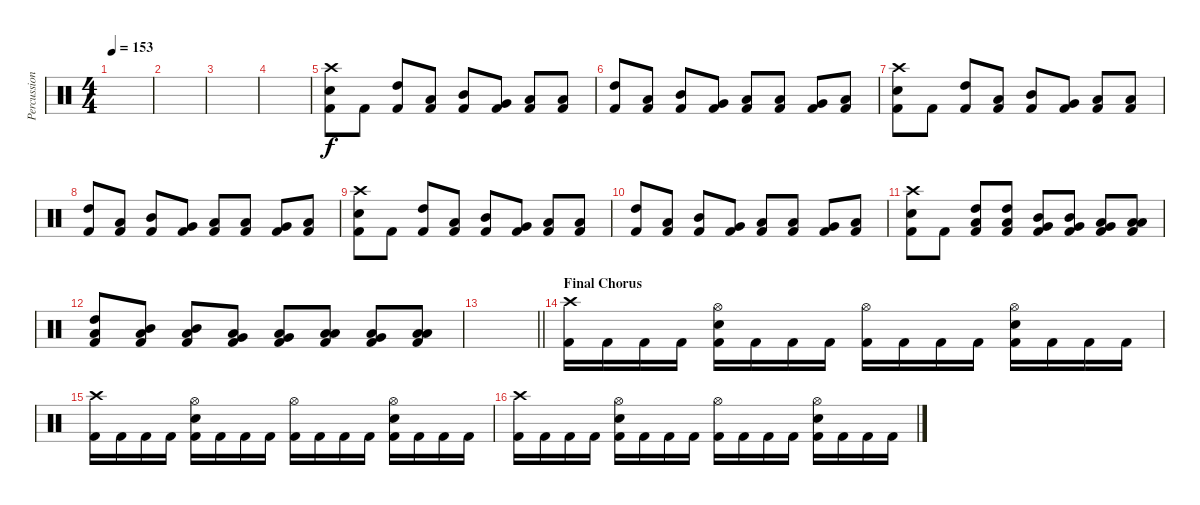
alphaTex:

\track ("Percussion" "Percussion") {instrument percussion}
\staff {score}
\articulation defaults
\ts (4 4)
\tempo 153
\clef neutral
\ks c
|
|
|
|
("Crash high (hit)" "Snare (hit) 2" "Kick (hit) 2").8 "Kick (hit) 2".8 ("High Tom (hit)" "Kick (hit) 2").8 ("Low Tom (hit)" "Kick (hit) 2").8 ("Mid Tom (hit)" "Kick (hit) 2").8 ("Very Low Tom (hit)" "Kick (hit) 2").8 ("Low Tom (hit)" "Kick (hit) 2").8 ("Low Floor Tom (hit)" "Kick (hit) 2").8 |
("High Tom (hit)" "Kick (hit) 2").8 ("Low Tom (hit)" "Kick (hit) 2").8 ("Mid Tom (hit)" "Kick (hit) 2").8 ("Very Low Tom (hit)" "Kick (hit) 2").8 ("Low Tom (hit)" "Kick (hit) 2").8 ("Low Floor Tom (hit)" "Kick (hit) 2").8 ("Very Low Tom (hit)" "Kick (hit) 2").8 ("Low Floor Tom (hit)" "Kick (hit) 2").8 |
("Crash high (hit)" "Snare (hit) 2" "Kick (hit) 2").8 "Kick (hit) 2".8 ("High Tom (hit)" "Kick (hit) 2").8 ("Low Tom (hit)" "Kick (hit) 2").8 ("Mid Tom (hit)" "Kick (hit) 2").8 ("Very Low Tom (hit)" "Kick (hit) 2").8 ("Low Tom (hit)" "Kick (hit) 2").8 ("Low Floor Tom (hit)" "Kick (hit) 2").8 |
("High Tom (hit)" "Kick (hit) 2").8 ("Low Tom (hit)" "Kick (hit) 2").8 ("Mid Tom (hit)" "Kick (hit) 2").8 ("Very Low Tom (hit)" "Kick (hit) 2").8 ("Low Tom (hit)" "Kick (hit) 2").8 ("Low Floor Tom (hit)" "Kick (hit) 2").8 ("Very Low Tom (hit)" "Kick (hit) 2").8 ("Low Floor Tom (hit)" "Kick (hit) 2").8 |
("Crash high (hit)" "Snare (hit) 2" "Kick (hit) 2").8 "Kick (hit) 2".8 ("High Tom (hit)" "Kick (hit) 2").8 ("Low Tom (hit)" "Kick (hit) 2").8 ("Mid Tom (hit)" "Kick (hit) 2").8 ("Very Low Tom (hit)" "Kick (hit) 2").8 ("Low Tom (hit)" "Kick (hit) 2").8 ("Low Floor Tom (hit)" "Kick (hit) 2").8 |
("High Tom (hit)" "Kick (hit) 2").8 ("Low Tom (hit)" "Kick (hit) 2").8 ("Mid Tom (hit)" "Kick (hit) 2").8 ("Very Low Tom (hit)" "Kick (hit) 2").8 ("Low Tom (hit)" "Kick (hit) 2").8 ("Low Floor Tom (hit)" "Kick (hit) 2").8 ("Very Low Tom (hit)" "Kick (hit) 2").8 ("Low Floor Tom (hit)" "Kick (hit) 2").8 |
("Crash high (hit)" "Snare (hit) 2" "Kick (hit) 2").8 "Kick (hit) 2".8 ("High Tom (hit)" "Low Tom (hit)" "Kick (hit) 2").8 ("High Tom (hit)" "Low Tom (hit)" "Kick (hit) 2").8 ("Mid Tom (hit)" "Very Low Tom (hit)" "Kick (hit) 2").8 ("Mid Tom (hit)" "Very Low Tom (hit)" "Kick (hit) 2").8 ("Low Tom (hit)" "Very Low Tom (hit)" "Kick (hit) 2").8 ("Low Tom (hit)" "Low Floor Tom (hit)" "Kick (hit) 2").8 |
("High Tom (hit)" "Low Tom (hit)" "Kick (hit) 2").8 ("Mid Tom (hit)" "Low Tom (hit)" "Kick (hit) 2").8 ("Mid Tom (hit)" "Low Tom (hit)" "Kick (hit) 2").8 ("Low Tom (hit)" "Very Low Tom (hit)" "Kick (hit) 2").8 ("Low Tom (hit)" "Very Low Tom (hit)" "Kick (hit) 2").8 ("Low Tom (hit)" "Low Floor Tom (hit)" "Kick (hit) 2").8 ("Very Low Tom (hit)" "Low Tom (hit)" "Kick (hit) 2").8 ("Low Tom (hit)" "Low Floor Tom (hit)" "Kick (hit) 2").8 |
\barLineRight lightlight
|
\section ("" "Final Chorus")
("Crash high (hit)" "Kick (hit) 2").16 "Kick (hit) 2".16 "Kick (hit) 2".16 "Kick (hit) 2".16 ("Hi-Hat (open)" "Snare (hit) 2" "Kick (hit) 2").16 "Kick (hit) 2".16 "Kick (hit) 2".16 "Kick (hit) 2".16 ("Hi-Hat (open)" "Kick (hit) 2").16 "Kick (hit) 2".16 "Kick (hit) 2".16 "Kick (hit) 2".16 ("Hi-Hat (open)" "Snare (hit) 2" "Kick (hit) 2").16 "Kick (hit) 2".16 "Kick (hit) 2".16 "Kick (hit) 2".16 |
("Crash high (hit)" "Kick (hit) 2").16 "Kick (hit) 2".16 "Kick (hit) 2".16 "Kick (hit) 2".16 ("Hi-Hat (open)" "Snare (hit) 2" "Kick (hit) 2").16 "Kick (hit) 2".16 "Kick (hit) 2".16 "Kick (hit) 2".16 ("Hi-Hat (open)" "Kick (hit) 2").16 "Kick (hit) 2".16 "Kick (hit) 2".16 "Kick (hit) 2".16 ("Hi-Hat (open)" "Snare (hit) 2" "Kick (hit) 2").16 "Kick (hit) 2".16 "Kick (hit) 2".16 "Kick (hit) 2".16 |
("Crash high (hit)" "Kick (hit) 2").16 "Kick (hit) 2".16 "Kick (hit) 2".16 "Kick (hit) 2".16 ("Hi-Hat (open)" "Snare (hit) 2" "Kick (hit) 2").16 "Kick (hit) 2".16 "Kick (hit) 2".16 "Kick (hit) 2".16 ("Hi-Hat (open)" "Kick (hit) 2").16 "Kick (hit) 2".16 "Kick (hit) 2".16 "Kick (hit) 2".16 ("Hi-Hat (open)" "Snare (hit) 2" "Kick (hit) 2").16 "Kick (hit) 2".16 "Kick (hit) 2".16 "Kick (hit) 2".16
